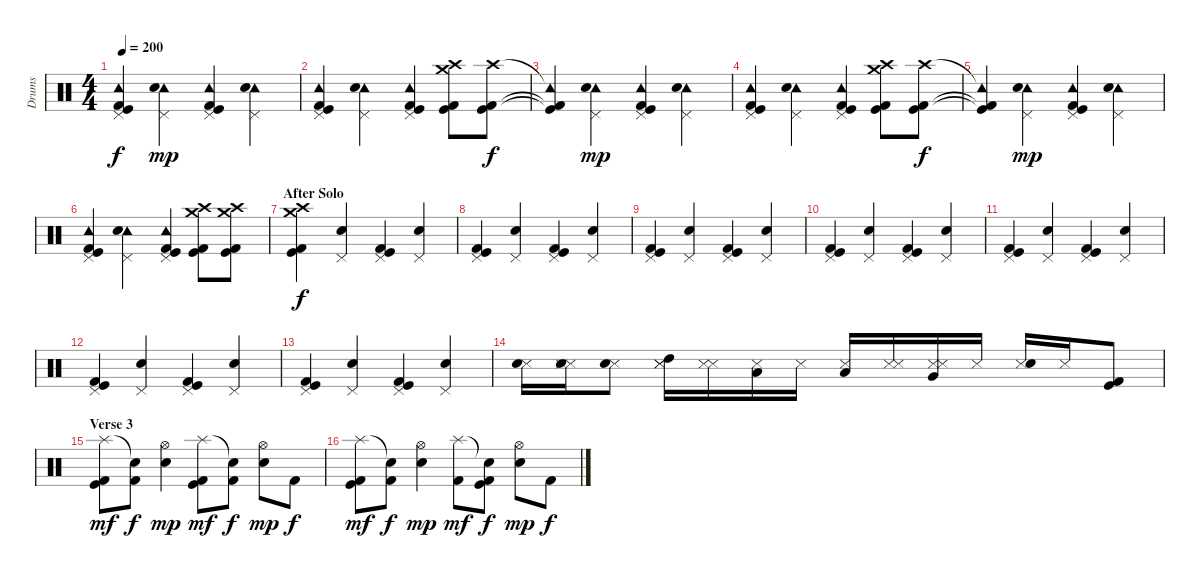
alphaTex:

\track ("Drums" "Drums") {instrument percussion}
\staff {score}
\articulation defaults
\ts (4 4)
\tempo 200
\clef neutral
\ks c
("Tambourine (hit)"{t} "Pedal Hi-Hat (hit)"{t} "Kick (hit)"{t} "Kick (hit) 2"{t}).4{dy f} ("Tambourine (hit)" "Pedal Hi-Hat (hit)" "Snare (hit) 2").4{dy mp} ("Tambourine (hit)" "Pedal Hi-Hat (hit)" "Kick (hit)" "Kick (hit) 2").4 ("Tambourine (hit)" "Pedal Hi-Hat (hit)" "Snare (hit) 2").4 |
("Tambourine (hit)" "Pedal Hi-Hat (hit)" "Kick (hit)" "Kick (hit) 2").4 ("Tambourine (hit)" "Pedal Hi-Hat (hit)" "Snare (hit) 2").4 ("Tambourine (hit)" "Pedal Hi-Hat (hit)" "Kick (hit)" "Kick (hit) 2").4 ("Crash high (hit)" "Crash medium (hit)" "Kick (hit)" "Kick (hit) 2").8 ("Crash high (hit)" "Kick (hit)" "Kick (hit) 2").8{dy f} |
("Tambourine (hit)"{t} "Kick (hit)"{t} "Kick (hit) 2"{t}).4 ("Tambourine (hit)" "Pedal Hi-Hat (hit)" "Snare (hit) 2").4{dy mp} ("Tambourine (hit)" "Pedal Hi-Hat (hit)" "Kick (hit)" "Kick (hit) 2").4 ("Tambourine (hit)" "Pedal Hi-Hat (hit)" "Snare (hit) 2").4 |
("Tambourine (hit)" "Pedal Hi-Hat (hit)" "Kick (hit)" "Kick (hit) 2").4 ("Tambourine (hit)" "Pedal Hi-Hat (hit)" "Snare (hit) 2").4 ("Tambourine (hit)" "Pedal Hi-Hat (hit)" "Kick (hit)" "Kick (hit) 2").4 ("Crash high (hit)" "Crash medium (hit)" "Kick (hit)" "Kick (hit) 2").8 ("Crash high (hit)" "Kick (hit)" "Kick (hit) 2").8{dy f} |
("Tambourine (hit)"{t} "Kick (hit)"{t} "Kick (hit) 2"{t}).4 ("Tambourine (hit)" "Pedal Hi-Hat (hit)" "Snare (hit) 2").4{dy mp} ("Tambourine (hit)" "Pedal Hi-Hat (hit)" "Kick (hit)" "Kick (hit) 2").4 ("Tambourine (hit)" "Pedal Hi-Hat (hit)" "Snare (hit) 2").4 |
("Tambourine (hit)" "Pedal Hi-Hat (hit)" "Kick (hit)" "Kick (hit) 2").4 ("Tambourine (hit)" "Pedal Hi-Hat (hit)" "Snare (hit) 2").4 ("Tambourine (hit)" "Pedal Hi-Hat (hit)" "Kick (hit)" "Kick (hit) 2").4 ("Crash high (hit)" "Crash medium (hit)" "Kick (hit)" "Kick (hit) 2").8 ("Crash high (hit)" "Crash medium (hit)" "Kick (hit)" "Kick (hit) 2").8 |
\section ("" "After Solo")
("Crash high (hit)" "Crash medium (hit)" "Kick (hit)" "Kick (hit) 2").4{dy f} ("Pedal Hi-Hat (hit)" "Snare (hit) 2").4 ("Pedal Hi-Hat (hit)" "Kick (hit)" "Kick (hit) 2").4 ("Pedal Hi-Hat (hit)" "Snare (hit) 2").4 |
("Pedal Hi-Hat (hit)" "Kick (hit)" "Kick (hit) 2").4 ("Pedal Hi-Hat (hit)" "Snare (hit) 2").4 ("Pedal Hi-Hat (hit)" "Kick (hit)" "Kick (hit) 2").4 ("Pedal Hi-Hat (hit)" "Snare (hit) 2").4 |
("Pedal Hi-Hat (hit)" "Kick (hit)" "Kick (hit) 2").4 ("Pedal Hi-Hat (hit)" "Snare (hit) 2").4 ("Pedal Hi-Hat (hit)" "Kick (hit)" "Kick (hit) 2").4 ("Pedal Hi-Hat (hit)" "Snare (hit) 2").4 |
("Pedal Hi-Hat (hit)" "Kick (hit)" "Kick (hit) 2").4 ("Pedal Hi-Hat (hit)" "Snare (hit) 2").4 ("Pedal Hi-Hat (hit)" "Kick (hit)" "Kick (hit) 2").4 ("Pedal Hi-Hat (hit)" "Snare (hit) 2").4 |
("Pedal Hi-Hat (hit)" "Kick (hit)" "Kick (hit) 2").4 ("Pedal Hi-Hat (hit)" "Snare (hit) 2").4 ("Pedal Hi-Hat (hit)" "Kick (hit)" "Kick (hit) 2").4 ("Pedal Hi-Hat (hit)" "Snare (hit) 2").4 |
("Pedal Hi-Hat (hit)" "Kick (hit)" "Kick (hit) 2").4 ("Pedal Hi-Hat (hit)" "Snare (hit) 2").4 ("Pedal Hi-Hat (hit)" "Kick (hit)" "Kick (hit) 2").4 ("Pedal Hi-Hat (hit)" "Snare (hit) 2").4 |
("Pedal Hi-Hat (hit)" "Kick (hit)" "Kick (hit) 2").4 ("Pedal Hi-Hat (hit)" "Snare (hit) 2").4 ("Pedal Hi-Hat (hit)" "Kick (hit)" "Kick (hit) 2").4 ("Pedal Hi-Hat (hit)" "Snare (hit) 2").4 |
("Snare (side stick) 3" "Snare (hit) 2").16 ("Metronome (hit)" "Snare (side stick) 3" "Snare (hit) 2").16 ("Snare (side stick) 3" "Snare (hit) 2").8 ("Metronome (hit)" "Snare (side stick) 3" "High Tom (hit)").16 ("Metronome (hit)" "Snare (side stick) 3").16 ("Metronome (hit)" "Low Tom (hit)").16 "Snare (side stick) 3".16 ("Snare (side stick) 3" "Low Tom (hit)").16 ("Metronome (hit)" "Snare (side stick) 3").16 ("Metronome (hit)" "Snare (side stick) 3" "Very Low Tom (hit)").16 "Metronome (hit)".16 ("Snare (side stick) 3" "Snare (hit) 2").16 "Snare (side stick) 3".16 ("Kick (hit)" "Kick (hit) 2").8 |
\section ("" "Verse 3")
("Splash (hit)" "Kick (hit)" "Kick (hit) 2").8{dy mf} ("Snare (hit)"{t} "Kick (hit) 2").8{dy f} ("Hi-Hat (open)" "Snare (hit) 2").4{dy mp} ("Splash (hit)" "Kick (hit)" "Kick (hit) 2").8{dy mf} ("Snare (hit)"{t} "Kick (hit) 2").8{dy f} ("Hi-Hat (open)" "Snare (hit) 2").8{dy mp} "Kick (hit) 2".8{dy f} |
("Splash (hit)" "Kick (hit)" "Kick (hit) 2").8{dy mf} ("Snare (hit)"{t} "Kick (hit) 2").8{dy f} ("Hi-Hat (open)" "Snare (hit) 2").4{dy mp} ("Splash (hit)" "Kick (hit) 2").8{dy mf} ("Snare (hit)"{t} "Kick (hit)" "Kick (hit) 2").8{dy f} ("Hi-Hat (open)" "Snare (hit) 2").8{dy mp} "Kick (hit) 2".8{dy f}
